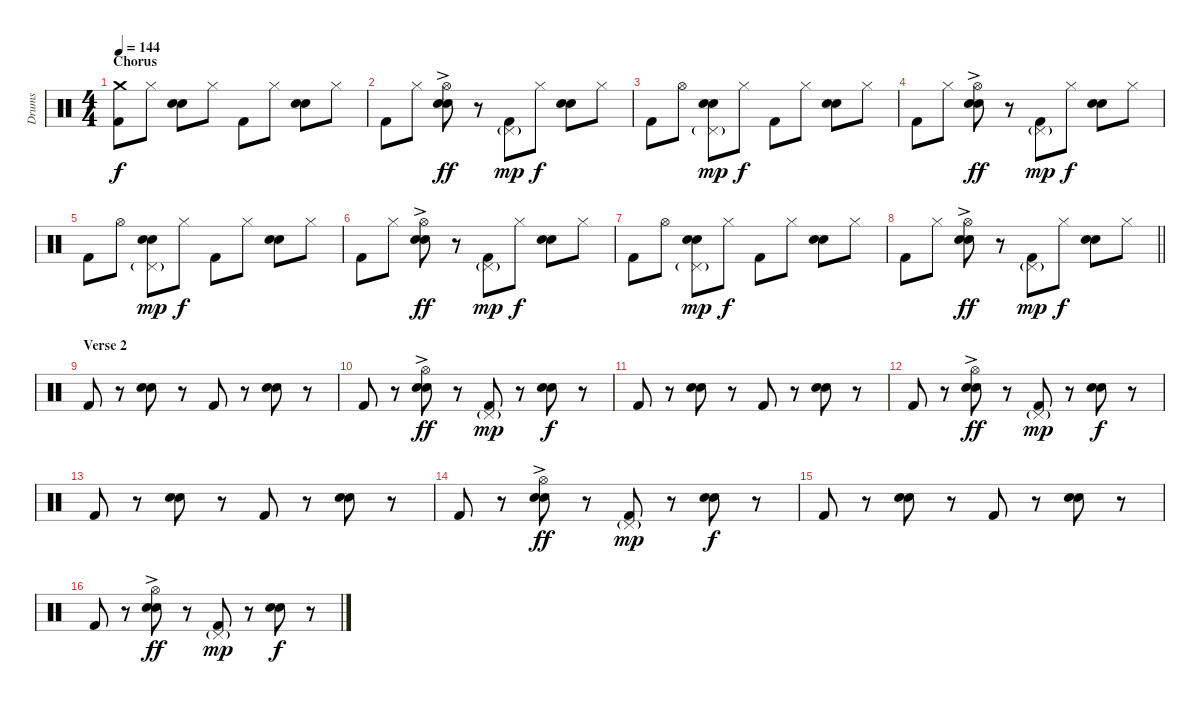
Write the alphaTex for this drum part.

\track ("Drums" "Drums") {instrument percussion}
\staff {score}
\articulation defaults
\ts (4 4)
\section ("" "Chorus")
\tempo 144
\clef neutral
\ks c
("Crash medium (hit)" "Kick (hit) 2").8{dy f} "Hi-Hat (closed)".8 ("Electric Snare (hit)" "Snare (hit) 2").8 "Hi-Hat (closed)".8 "Kick (hit) 2".8 "Hi-Hat (closed)".8 ("Electric Snare (hit)" "Snare (hit) 2").8 "Hi-Hat (closed)".8 |
"Kick (hit) 2".8 "Hi-Hat (closed)".8 ("Hi-Hat (open)"{ac} "Electric Snare (hit)" "Snare (hit) 2").8{dy ff} r.8 ("Pedal Hi-Hat (hit)"{g} "Kick (hit) 2").8{dy mp} "Hi-Hat (closed)".8{dy f} ("Electric Snare (hit)" "Snare (hit) 2").8 "Hi-Hat (closed)".8 |
"Kick (hit) 2".8 "Hi-Hat (open)".8 ("Pedal Hi-Hat (hit)"{g} "Electric Snare (hit)" "Snare (hit) 2").8{dy mp} "Hi-Hat (closed)".8{dy f} "Kick (hit) 2".8 "Hi-Hat (closed)".8 ("Electric Snare (hit)" "Snare (hit) 2").8 "Hi-Hat (closed)".8 |
"Kick (hit) 2".8 "Hi-Hat (closed)".8 ("Hi-Hat (open)"{ac} "Electric Snare (hit)" "Snare (hit) 2").8{dy ff} r.8 ("Pedal Hi-Hat (hit)"{g} "Kick (hit) 2").8{dy mp} "Hi-Hat (closed)".8{dy f} ("Electric Snare (hit)" "Snare (hit) 2").8 "Hi-Hat (closed)".8 |
"Kick (hit) 2".8 "Hi-Hat (open)".8 ("Pedal Hi-Hat (hit)"{g} "Electric Snare (hit)" "Snare (hit) 2").8{dy mp} "Hi-Hat (closed)".8{dy f} "Kick (hit) 2".8 "Hi-Hat (closed)".8 ("Electric Snare (hit)" "Snare (hit) 2").8 "Hi-Hat (closed)".8 |
"Kick (hit) 2".8 "Hi-Hat (closed)".8 ("Hi-Hat (open)"{ac} "Electric Snare (hit)" "Snare (hit) 2").8{dy ff} r.8 ("Pedal Hi-Hat (hit)"{g} "Kick (hit) 2").8{dy mp} "Hi-Hat (closed)".8{dy f} ("Electric Snare (hit)" "Snare (hit) 2").8 "Hi-Hat (closed)".8 |
"Kick (hit) 2".8 "Hi-Hat (open)".8 ("Pedal Hi-Hat (hit)"{g} "Electric Snare (hit)" "Snare (hit) 2").8{dy mp} "Hi-Hat (closed)".8{dy f} "Kick (hit) 2".8 "Hi-Hat (closed)".8 ("Electric Snare (hit)" "Snare (hit) 2").8 "Hi-Hat (closed)".8 |
\barLineRight lightlight "Kick (hit) 2".8 "Hi-Hat (closed)".8
("Hi-Hat (open)"{ac} "Electric Snare (hit)" "Snare (hit) 2").8{dy ff} r.8 ("Pedal Hi-Hat (hit)"{g} "Kick (hit) 2").8{dy mp} "Hi-Hat (closed)".8{dy f} ("Electric Snare (hit)" "Snare (hit) 2").8 "Hi-Hat (closed)".8 |
\section ("" "Verse 2")
"Kick (hit) 2".8 r.8 ("Electric Snare (hit)" "Snare (hit) 2").8 r.8 "Kick (hit) 2".8 r.8 ("Electric Snare (hit)" "Snare (hit) 2").8 r.8 |
"Kick (hit) 2".8 r.8 ("Hi-Hat (open)"{ac} "Electric Snare (hit)" "Snare (hit) 2").8{dy ff} r.8 ("Pedal Hi-Hat (hit)"{g} "Kick (hit) 2").8{dy mp} r.8 ("Electric Snare (hit)" "Snare (hit) 2").8{dy f} r.8 |
"Kick (hit) 2".8 r.8 ("Electric Snare (hit)" "Snare (hit) 2").8 r.8 "Kick (hit) 2".8 r.8 ("Electric Snare (hit)" "Snare (hit) 2").8 r.8 |
"Kick (hit) 2".8 r.8 ("Hi-Hat (open)"{ac} "Electric Snare (hit)" "Snare (hit) 2").8{dy ff} r.8 ("Pedal Hi-Hat (hit)"{g} "Kick (hit) 2").8{dy mp} r.8 ("Electric Snare (hit)" "Snare (hit) 2").8{dy f} r.8 |
"Kick (hit) 2".8 r.8 ("Electric Snare (hit)" "Snare (hit) 2").8 r.8 "Kick (hit) 2".8 r.8 ("Electric Snare (hit)" "Snare (hit) 2").8 r.8 |
"Kick (hit) 2".8 r.8 ("Hi-Hat (open)"{ac} "Electric Snare (hit)" "Snare (hit) 2").8{dy ff} r.8 ("Pedal Hi-Hat (hit)"{g} "Kick (hit) 2").8{dy mp} r.8 ("Electric Snare (hit)" "Snare (hit) 2").8{dy f} r.8 |
"Kick (hit) 2".8 r.8 ("Electric Snare (hit)" "Snare (hit) 2").8 r.8 "Kick (hit) 2".8 r.8 ("Electric Snare (hit)" "Snare (hit) 2").8 r.8 |
"Kick (hit) 2".8 r.8 ("Hi-Hat (open)"{ac} "Electric Snare (hit)" "Snare (hit) 2").8{dy ff} r.8 ("Pedal Hi-Hat (hit)"{g} "Kick (hit) 2").8{dy mp} r.8 ("Electric Snare (hit)" "Snare (hit) 2").8{dy f} r.8
